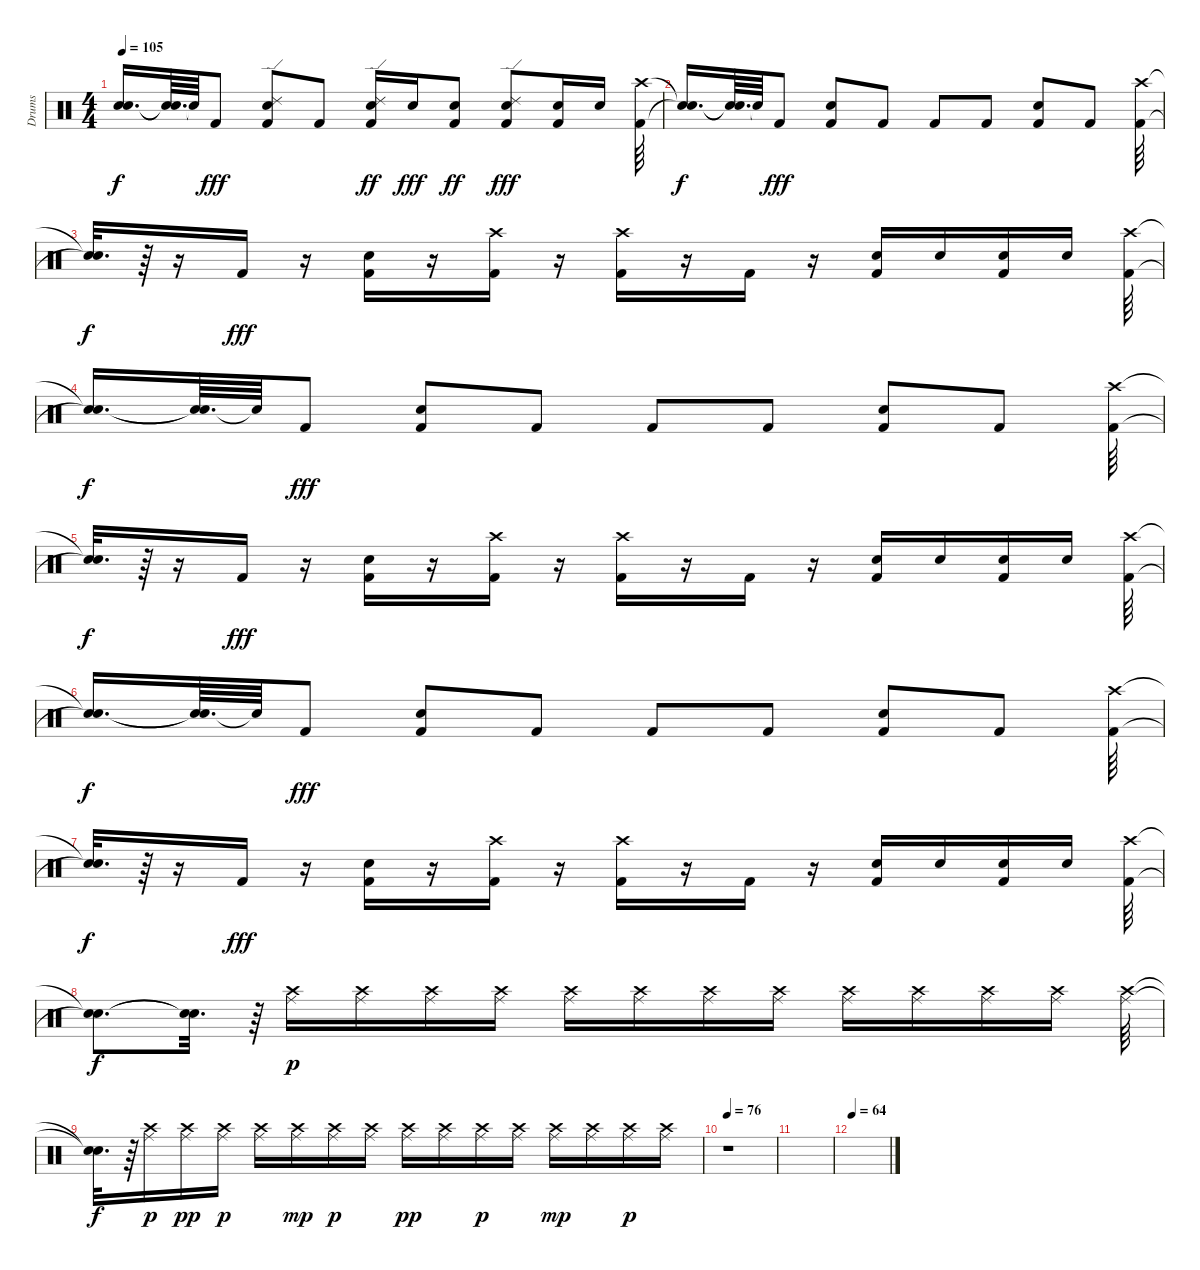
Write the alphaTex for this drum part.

\track ("Drums" "Drums") {instrument percussion}
\staff {score}
\articulation defaults
\ts (4 4)
\tempo 105
\clef neutral
\ks c
("Snare (hit)"{t} "Snare (hit)"{t}).16{d dy f} ("Snare (hit)"{t} "Snare (hit)"{t}).64{d} "Snare (hit)"{t}.64 "Kick (hit) 2".8{dy fff} ("Kick (hit) 2" "Ride (edge) 2" "Snare (hit) 2").8 "Kick (hit) 2".8 ("Snare (hit) 2" "Kick (hit) 2" "Ride (edge) 2").16{dy ff} "Snare (hit) 2".16{dy fff} ("Snare (hit) 2" "Kick (hit) 2").8{dy ff} ("Kick (hit) 2" "Ride (edge) 2" "Snare (hit) 2").8{dy fff} ("Kick (hit) 2" "Snare (hit) 2").16 "Snare (hit) 2".16 ("Kick (hit) 2" "Crash high (hit)").64 |
("Snare (hit)"{t} "Snare (hit)"{t}).16{d dy f} ("Snare (hit)"{t} "Snare (hit)"{t}).64{d} "Snare (hit)"{t}.64 "Kick (hit) 2".8{dy fff} ("Snare (hit) 2" "Kick (hit) 2").8 "Kick (hit) 2".8 "Kick (hit) 2".8 "Kick (hit) 2".8 ("Snare (hit) 2" "Kick (hit) 2").8 "Kick (hit) 2".8 ("Crash high (hit)" "Kick (hit) 2").64 |
("Snare (hit)"{t} "Snare (hit)"{t}).32{d dy f} r.64 r.16 "Kick (hit) 2".16{dy fff} r.16 ("Snare (hit) 2" "Kick (hit) 2").16 r.16 ("Crash high (hit)" "Kick (hit) 2").16 r.16 ("Crash high (hit)" "Kick (hit) 2").16 r.16 "Kick (hit) 2".16 r.16 ("Snare (hit) 2" "Kick (hit) 2").16 "Snare (hit) 2".16 ("Snare (hit) 2" "Kick (hit) 2").16 "Snare (hit) 2".16 ("Kick (hit) 2" "Crash high (hit)").64 |
("Snare (hit)"{t} "Snare (hit)"{t}).16{d dy f} ("Snare (hit)"{t} "Snare (hit)"{t}).64{d} "Snare (hit)"{t}.64 "Kick (hit) 2".8{dy fff} ("Snare (hit) 2" "Kick (hit) 2").8 "Kick (hit) 2".8 "Kick (hit) 2".8 "Kick (hit) 2".8 ("Snare (hit) 2" "Kick (hit) 2").8 "Kick (hit) 2".8 ("Crash high (hit)" "Kick (hit) 2").64 |
("Snare (hit)"{t} "Snare (hit)"{t}).32{d dy f} r.64 r.16 "Kick (hit) 2".16{dy fff} r.16 ("Snare (hit) 2" "Kick (hit) 2").16 r.16 ("Crash high (hit)" "Kick (hit) 2").16 r.16 ("Crash high (hit)" "Kick (hit) 2").16 r.16 "Kick (hit) 2".16 r.16 ("Snare (hit) 2" "Kick (hit) 2").16 "Snare (hit) 2".16 ("Snare (hit) 2" "Kick (hit) 2").16 "Snare (hit) 2".16 ("Kick (hit) 2" "Crash high (hit)").64 |
("Snare (hit)"{t} "Snare (hit)"{t}).16{d dy f} ("Snare (hit)"{t} "Snare (hit)"{t}).64{d} "Snare (hit)"{t}.64 "Kick (hit) 2".8{dy fff} ("Snare (hit) 2" "Kick (hit) 2").8 "Kick (hit) 2".8 "Kick (hit) 2".8 "Kick (hit) 2".8 ("Snare (hit) 2" "Kick (hit) 2").8 "Kick (hit) 2".8 ("Crash high (hit)" "Kick (hit) 2").64 |
("Snare (hit)"{t} "Snare (hit)"{t}).32{d dy f} r.64 r.16 "Kick (hit) 2".16{dy fff} r.16 ("Snare (hit) 2" "Kick (hit) 2").16 r.16 ("Crash high (hit)" "Kick (hit) 2").16 r.16 ("Crash high (hit)" "Kick (hit) 2").16 r.16 "Kick (hit) 2".16 r.16 ("Snare (hit) 2" "Kick (hit) 2").16 "Snare (hit) 2".16 ("Snare (hit) 2" "Kick (hit) 2").16 "Snare (hit) 2".16 ("Crash high (hit)" "Kick (hit) 2").64 |
("Snare (hit)"{t} "Snare (hit)"{t}).8{d dy f} ("Snare (hit)"{t} "Snare (hit)"{t}).32{d} r.64 ("Ride (middle)" "Crash high (hit)").16{dy p} ("Crash high (hit)" "Ride (middle)").16 ("Crash high (hit)" "Ride (middle)").16 ("Ride (middle)" "Crash high (hit)").16 ("Ride (middle)" "Crash high (hit)").16 ("Ride (middle)" "Crash high (hit)").16 ("Crash high (hit)" "Ride (middle)").16 ("Crash high (hit)" "Ride (middle)").16 ("Crash high (hit)" "Ride (middle)").16 ("Ride (middle)" "Crash high (hit)").16 ("Ride (middle)" "Crash high (hit)").16 ("Crash high (hit)" "Ride (middle)").16 ("Crash high (hit)" "Ride (middle)").64 |
("Snare (hit)"{t} "Snare (hit)"{t}).32{d dy f} r.64 ("Crash high (hit)" "Ride (middle)").16{dy p} ("Ride (middle)" "Crash high (hit)").16{dy pp} ("Ride (middle)" "Crash high (hit)").16{dy p} ("Crash high (hit)" "Ride (middle)").16 ("Crash high (hit)" "Ride (middle)").16{dy mp} ("Crash high (hit)" "Ride (middle)").16{dy p} ("Crash high (hit)" "Ride (middle)").16 ("Ride (middle)" "Crash high (hit)").16{dy pp} ("Crash high (hit)" "Ride (middle)").16 ("Crash high (hit)" "Ride (middle)").16{dy p} ("Ride (middle)" "Crash high (hit)").16 ("Crash high (hit)" "Ride (middle)").16{dy mp} ("Ride (middle)" "Crash high (hit)").16 ("Crash high (hit)" "Ride (middle)").16{dy p} ("Crash high (hit)" "Ride (middle)").16 |
\tempo 76
r.1 |
|
\tempo 64
